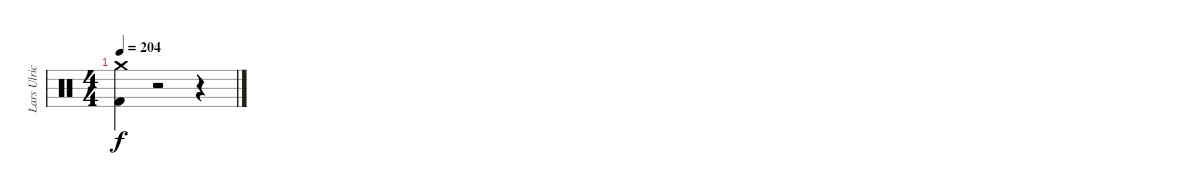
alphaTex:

\track ("Lars Ulrich (Drums)" "Lars Ulric") {instrument percussion}
\staff {score}
\articulation defaults
\ts (4 4)
\tempo 204
\clef neutral
\ks c
("Crash medium (hit)" "Kick (hit) 2").4{dy f} r.2 r.4
